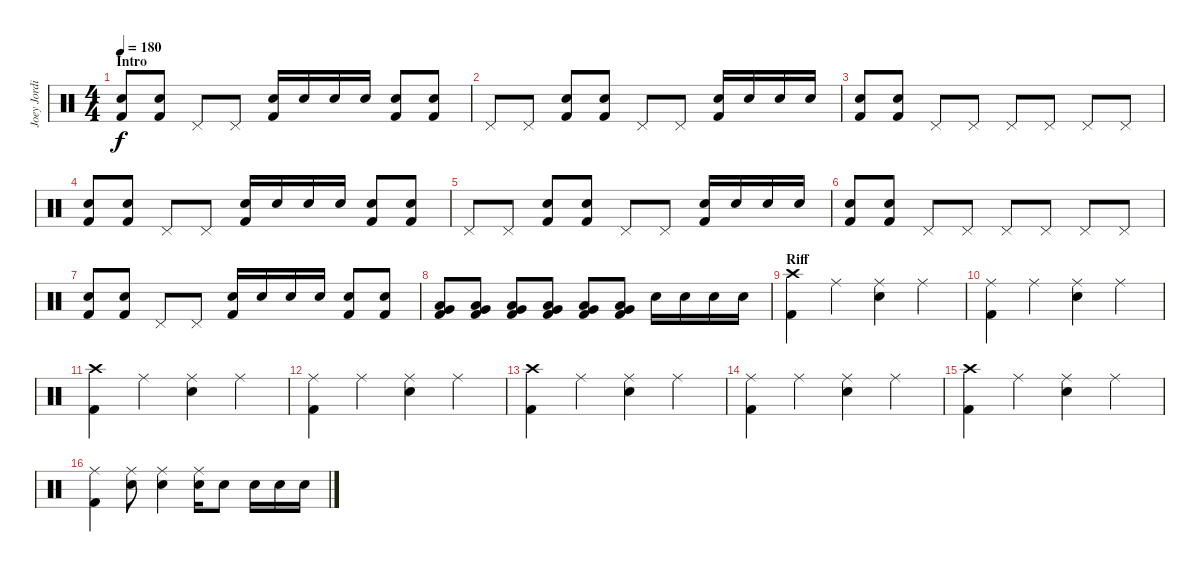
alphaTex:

\track ("Joey Jordison" "Joey Jordi") {instrument percussion}
\staff {score}
\articulation defaults
\ts (4 4)
\section ("" "Intro")
\tempo 180
\clef neutral
\ks c
("Kick (hit) 2" "Electric Snare (hit)").8{dy f} ("Kick (hit) 2" "Electric Snare (hit)").8 "Pedal Hi-Hat (hit)".8 "Pedal Hi-Hat (hit)".8 ("Kick (hit) 2" "Electric Snare (hit)").16 "Electric Snare (hit)".16 "Electric Snare (hit)".16 "Electric Snare (hit)".16 ("Kick (hit) 2" "Electric Snare (hit)").8 ("Kick (hit) 2" "Electric Snare (hit)").8 |
"Pedal Hi-Hat (hit)".8 "Pedal Hi-Hat (hit)".8 ("Kick (hit) 2" "Electric Snare (hit)").8 ("Kick (hit) 2" "Electric Snare (hit)").8 "Pedal Hi-Hat (hit)".8 "Pedal Hi-Hat (hit)".8 ("Kick (hit) 2" "Electric Snare (hit)").16 "Electric Snare (hit)".16 "Electric Snare (hit)".16 "Electric Snare (hit)".16 |
("Kick (hit) 2" "Electric Snare (hit)").8 ("Kick (hit) 2" "Electric Snare (hit)").8 "Pedal Hi-Hat (hit)".8 "Pedal Hi-Hat (hit)".8 "Pedal Hi-Hat (hit)".8 "Pedal Hi-Hat (hit)".8 "Pedal Hi-Hat (hit)".8 "Pedal Hi-Hat (hit)".8 |
("Kick (hit) 2" "Electric Snare (hit)").8 ("Kick (hit) 2" "Electric Snare (hit)").8 "Pedal Hi-Hat (hit)".8 "Pedal Hi-Hat (hit)".8 ("Kick (hit) 2" "Electric Snare (hit)").16 "Electric Snare (hit)".16 "Electric Snare (hit)".16 "Electric Snare (hit)".16 ("Kick (hit) 2" "Electric Snare (hit)").8 ("Kick (hit) 2" "Electric Snare (hit)").8 |
"Pedal Hi-Hat (hit)".8 "Pedal Hi-Hat (hit)".8 ("Kick (hit) 2" "Electric Snare (hit)").8 ("Kick (hit) 2" "Electric Snare (hit)").8 "Pedal Hi-Hat (hit)".8 "Pedal Hi-Hat (hit)".8 ("Kick (hit) 2" "Electric Snare (hit)").16 "Electric Snare (hit)".16 "Electric Snare (hit)".16 "Electric Snare (hit)".16 |
("Kick (hit) 2" "Electric Snare (hit)").8 ("Kick (hit) 2" "Electric Snare (hit)").8 "Pedal Hi-Hat (hit)".8 "Pedal Hi-Hat (hit)".8 "Pedal Hi-Hat (hit)".8 "Pedal Hi-Hat (hit)".8 "Pedal Hi-Hat (hit)".8 "Pedal Hi-Hat (hit)".8 |
("Kick (hit) 2" "Electric Snare (hit)").8 ("Kick (hit) 2" "Electric Snare (hit)").8 "Pedal Hi-Hat (hit)".8 "Pedal Hi-Hat (hit)".8 ("Kick (hit) 2" "Electric Snare (hit)").16 "Electric Snare (hit)".16 "Electric Snare (hit)".16 "Electric Snare (hit)".16 ("Kick (hit) 2" "Electric Snare (hit)").8 ("Kick (hit) 2" "Electric Snare (hit)").8 |
("Very Low Tom (hit)" "Low Tom (hit)" "Kick (hit) 2").8 ("Very Low Tom (hit)" "Low Tom (hit)" "Kick (hit) 2").8 ("Very Low Tom (hit)" "Low Tom (hit)" "Kick (hit) 2").8 ("Very Low Tom (hit)" "Low Tom (hit)" "Kick (hit) 2").8 ("Very Low Tom (hit)" "Low Tom (hit)" "Kick (hit) 2").8 ("Very Low Tom (hit)" "Low Tom (hit)" "Kick (hit) 2").8 "Electric Snare (hit)".16 "Electric Snare (hit)".16 "Electric Snare (hit)".16 "Electric Snare (hit)".16 |
\section ("" "Riff")
("Crash high (hit)" "Kick (hit) 2").4 "Ride (middle)".4 ("Ride (middle)" "Electric Snare (hit)").4 "Ride (middle)".4 |
("Ride (middle)" "Kick (hit) 2").4 "Ride (middle)".4 ("Ride (middle)" "Electric Snare (hit)").4 "Ride (middle)".4 |
("Crash high (hit)" "Kick (hit) 2").4 "Ride (middle)".4 ("Ride (middle)" "Electric Snare (hit)").4 "Ride (middle)".4 |
("Ride (middle)" "Kick (hit) 2").4 "Ride (middle)".4 ("Ride (middle)" "Electric Snare (hit)").4 "Ride (middle)".4 |
("Crash high (hit)" "Kick (hit) 2").4 "Ride (middle)".4 ("Ride (middle)" "Electric Snare (hit)").4 "Ride (middle)".4 |
("Ride (middle)" "Kick (hit) 2").4 "Ride (middle)".4 ("Ride (middle)" "Electric Snare (hit)").4 "Ride (middle)".4 |
("Crash high (hit)" "Kick (hit) 2").4 "Ride (middle)".4 ("Ride (middle)" "Electric Snare (hit)").4 "Ride (middle)".4 |
("Ride (middle)" "Kick (hit) 2").4 ("Ride (middle)" "Electric Snare (hit)").8 ("Ride (middle)" "Electric Snare (hit)").4 ("Ride (middle)" "Electric Snare (hit)").16 "Electric Snare (hit)".8 "Electric Snare (hit)".16 "Electric Snare (hit)".16 "Electric Snare (hit)".16
